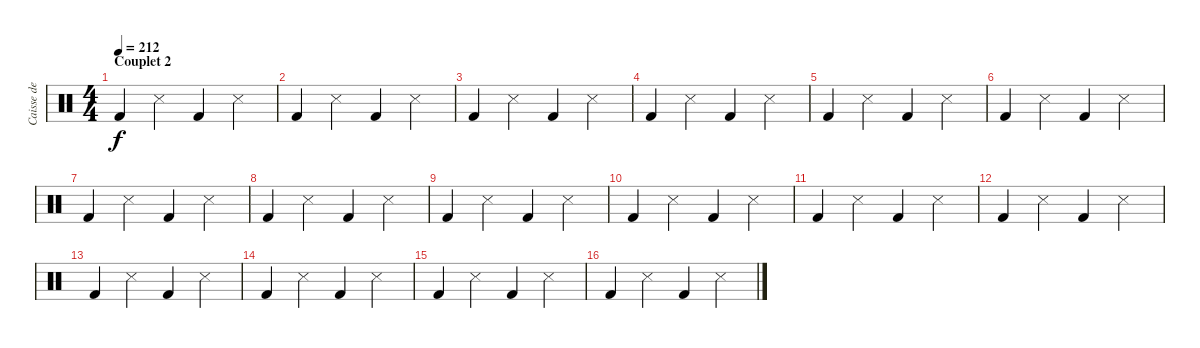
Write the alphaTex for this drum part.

\track ("Caisse de guitare" "Caisse de ") {instrument percussion}
\staff {score}
\articulation defaults
\ts (4 4)
\section ("" "Couplet 2")
\tempo 212
\clef neutral
\ks c "Kick (hit) 2".4{dy f} "Metronome (hit)".4 "Kick (hit) 2".4 "Metronome (hit)".4
|
"Kick (hit) 2".4 "Metronome (hit)".4 "Kick (hit) 2".4 "Metronome (hit)".4 |
"Kick (hit) 2".4 "Metronome (hit)".4 "Kick (hit) 2".4 "Metronome (hit)".4 |
"Kick (hit) 2".4 "Metronome (hit)".4 "Kick (hit) 2".4 "Metronome (hit)".4 |
"Kick (hit) 2".4 "Metronome (hit)".4 "Kick (hit) 2".4 "Metronome (hit)".4 |
"Kick (hit) 2".4 "Metronome (hit)".4 "Kick (hit) 2".4 "Metronome (hit)".4 |
"Kick (hit) 2".4 "Metronome (hit)".4 "Kick (hit) 2".4 "Metronome (hit)".4 |
"Kick (hit) 2".4 "Metronome (hit)".4 "Kick (hit) 2".4 "Metronome (hit)".4 |
"Kick (hit) 2".4 "Metronome (hit)".4 "Kick (hit) 2".4 "Metronome (hit)".4 |
"Kick (hit) 2".4 "Metronome (hit)".4 "Kick (hit) 2".4 "Metronome (hit)".4 |
"Kick (hit) 2".4 "Metronome (hit)".4 "Kick (hit) 2".4 "Metronome (hit)".4 |
"Kick (hit) 2".4 "Metronome (hit)".4 "Kick (hit) 2".4 "Metronome (hit)".4 |
"Kick (hit) 2".4 "Metronome (hit)".4 "Kick (hit) 2".4 "Metronome (hit)".4 |
"Kick (hit) 2".4 "Metronome (hit)".4 "Kick (hit) 2".4 "Metronome (hit)".4 |
"Kick (hit) 2".4 "Metronome (hit)".4 "Kick (hit) 2".4 "Metronome (hit)".4 |
"Kick (hit) 2".4 "Metronome (hit)".4 "Kick (hit) 2".4 "Metronome (hit)".4
